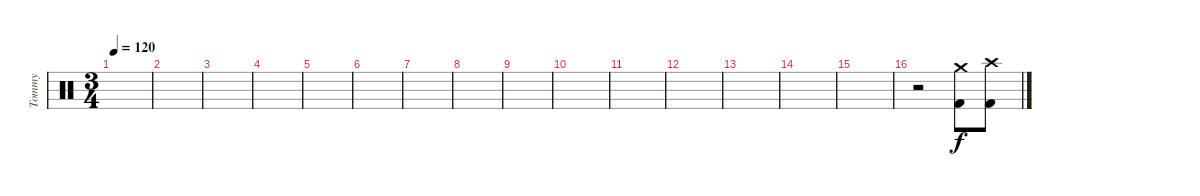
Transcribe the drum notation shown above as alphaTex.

\track ("Tommy" "Tommy") {instrument percussion}
\staff {score}
\articulation defaults
\ts (3 4)
\tempo 120
\clef neutral
\ks c
|
|
|
|
|
|
|
|
|
|
|
|
|
|
|
r.2 ("Crash medium (hit)" "Kick (hit) 2").8 ("Crash high (hit)" "Kick (hit) 2").8
